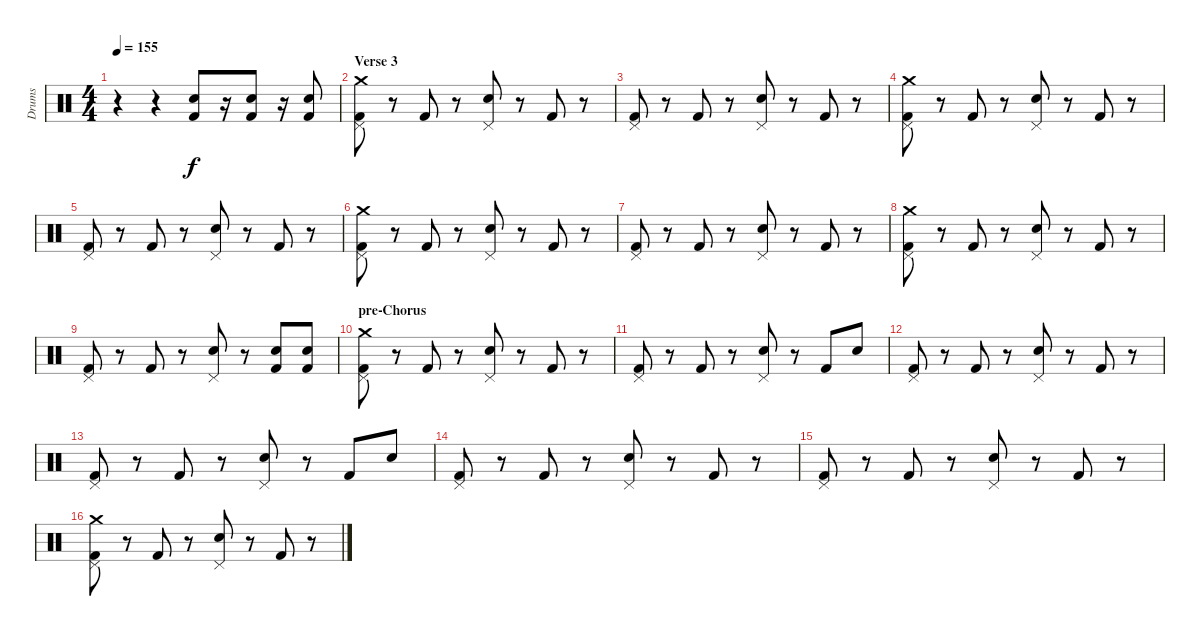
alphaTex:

\track ("Drums" "Drums") {instrument percussion}
\staff {score}
\articulation defaults
\ts (4 4)
\tempo 155
\clef neutral
\ks c
r.4{dy f} r.4 ("Snare (hit) 2" "Kick (hit) 2").8 r.16 ("Snare (hit) 2" "Kick (hit) 2").8 r.16 ("Snare (hit) 2" "Kick (hit) 2").8 |
\section ("" "Verse 3")
("Pedal Hi-Hat (hit)" "Crash medium (hit)" "Kick (hit) 2").8 r.8 "Kick (hit) 2".8 r.8 ("Pedal Hi-Hat (hit)" "Snare (hit) 2").8 r.8 "Kick (hit) 2".8 r.8 |
("Pedal Hi-Hat (hit)" "Kick (hit) 2").8 r.8 "Kick (hit) 2".8 r.8 ("Pedal Hi-Hat (hit)" "Snare (hit) 2").8 r.8 "Kick (hit) 2".8 r.8 |
("Pedal Hi-Hat (hit)" "Crash medium (hit)" "Kick (hit) 2").8 r.8 "Kick (hit) 2".8 r.8 ("Pedal Hi-Hat (hit)" "Snare (hit) 2").8 r.8 "Kick (hit) 2".8 r.8 |
("Pedal Hi-Hat (hit)" "Kick (hit) 2").8 r.8 "Kick (hit) 2".8 r.8 ("Pedal Hi-Hat (hit)" "Snare (hit) 2").8 r.8 "Kick (hit) 2".8 r.8 |
("Pedal Hi-Hat (hit)" "Crash medium (hit)" "Kick (hit) 2").8 r.8 "Kick (hit) 2".8 r.8 ("Pedal Hi-Hat (hit)" "Snare (hit) 2").8 r.8 "Kick (hit) 2".8 r.8 |
("Pedal Hi-Hat (hit)" "Kick (hit) 2").8 r.8 "Kick (hit) 2".8 r.8 ("Pedal Hi-Hat (hit)" "Snare (hit) 2").8 r.8 "Kick (hit) 2".8 r.8 |
("Pedal Hi-Hat (hit)" "Crash medium (hit)" "Kick (hit) 2").8 r.8 "Kick (hit) 2".8 r.8 ("Pedal Hi-Hat (hit)" "Snare (hit) 2").8 r.8 "Kick (hit) 2".8 r.8 |
("Pedal Hi-Hat (hit)" "Kick (hit) 2").8 r.8 "Kick (hit) 2".8 r.8 ("Pedal Hi-Hat (hit)" "Snare (hit) 2").8 r.8 ("Snare (hit) 2" "Kick (hit) 2").8 ("Snare (hit) 2" "Kick (hit) 2").8 |
\section ("" "pre-Chorus")
("Pedal Hi-Hat (hit)" "Crash medium (hit)" "Kick (hit) 2").8 r.8 "Kick (hit) 2".8 r.8 ("Pedal Hi-Hat (hit)" "Snare (hit) 2").8 r.8 "Kick (hit) 2".8 r.8 |
("Pedal Hi-Hat (hit)" "Kick (hit) 2").8 r.8 "Kick (hit) 2".8 r.8 ("Pedal Hi-Hat (hit)" "Snare (hit) 2").8 r.8 "Kick (hit) 2".8 "Snare (hit) 2".8 |
("Pedal Hi-Hat (hit)" "Kick (hit) 2").8 r.8 "Kick (hit) 2".8 r.8 ("Pedal Hi-Hat (hit)" "Snare (hit) 2").8 r.8 "Kick (hit) 2".8 r.8 |
("Pedal Hi-Hat (hit)" "Kick (hit) 2").8 r.8 "Kick (hit) 2".8 r.8 ("Pedal Hi-Hat (hit)" "Snare (hit) 2").8 r.8 "Kick (hit) 2".8 "Snare (hit) 2".8 |
("Pedal Hi-Hat (hit)" "Kick (hit) 2").8 r.8 "Kick (hit) 2".8 r.8 ("Pedal Hi-Hat (hit)" "Snare (hit) 2").8 r.8 "Kick (hit) 2".8 r.8 |
("Pedal Hi-Hat (hit)" "Kick (hit) 2").8 r.8 "Kick (hit) 2".8 r.8 ("Pedal Hi-Hat (hit)" "Snare (hit) 2").8 r.8 "Kick (hit) 2".8 r.8 |
("Pedal Hi-Hat (hit)" "Crash medium (hit)" "Kick (hit) 2").8 r.8 "Kick (hit) 2".8 r.8 ("Pedal Hi-Hat (hit)" "Snare (hit) 2").8 r.8 "Kick (hit) 2".8 r.8
